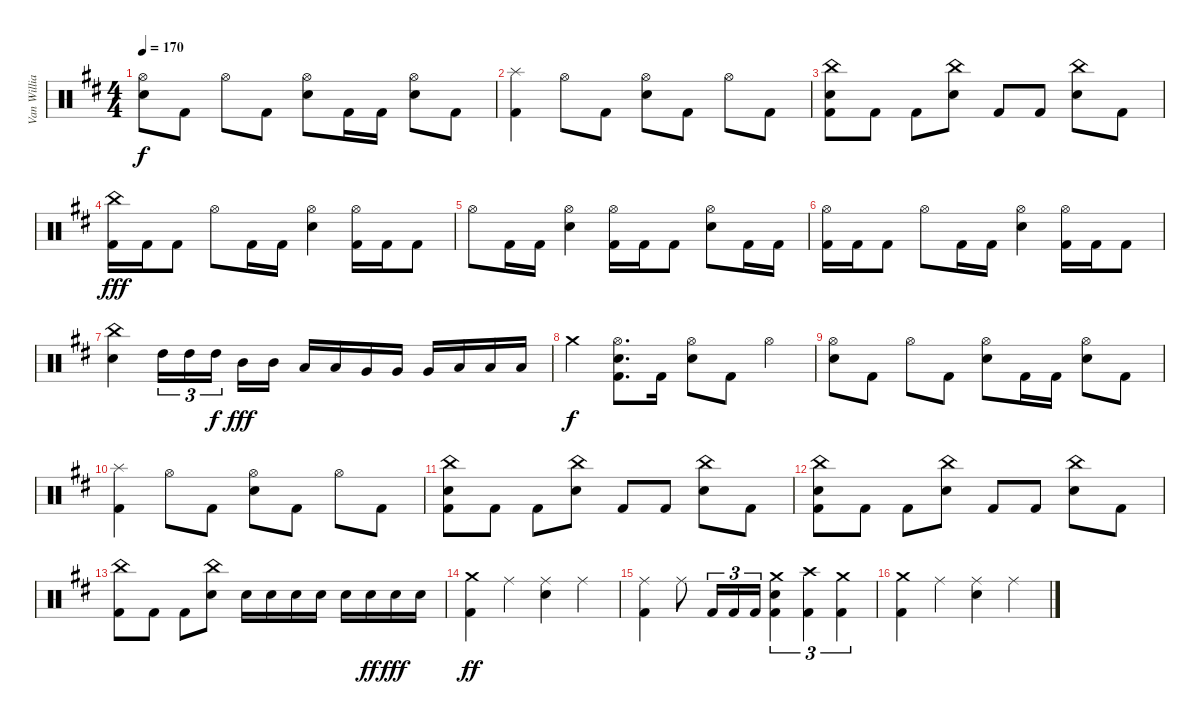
\track ("Van Williams" "Van Willia") {instrument percussion}
\staff {score}
\articulation defaults
\ts (4 4)
\tempo 170
\clef neutral
\ks d
("Hi-Hat (open)" "Electric Snare (hit)").8{dy f} "Kick (hit) 2".8 "Hi-Hat (open)".8 "Kick (hit) 2".8 ("Hi-Hat (open)" "Electric Snare (hit)").8 "Kick (hit) 2".16 "Kick (hit) 2".16 ("Hi-Hat (open)" "Electric Snare (hit)").8 "Kick (hit) 2".8 |
("Splash (hit)" "Kick (hit) 2").4 "Hi-Hat (open)".8 "Kick (hit) 2".8 ("Hi-Hat (open)" "Electric Snare (hit)").8 "Kick (hit) 2".8 "Hi-Hat (open)".8 "Kick (hit) 2".8 |
("China (hit)" "Electric Snare (hit)" "Kick (hit) 2").8 "Kick (hit) 2".8 "Kick (hit) 2".8 ("China (hit)" "Electric Snare (hit)").8 "Kick (hit) 2".8 "Kick (hit) 2".8 ("China (hit)" "Electric Snare (hit)").8 "Kick (hit) 2".8 |
("China (hit)" "Kick (hit) 2").16{dy fff} "Kick (hit) 2".16 "Kick (hit) 2".8 "Hi-Hat (open)".8 "Kick (hit) 2".16 "Kick (hit) 2".16 ("Hi-Hat (open)" "Electric Snare (hit)").4 ("Hi-Hat (open)" "Kick (hit) 2").16 "Kick (hit) 2".16 "Kick (hit) 2".8 |
"Hi-Hat (open)".8 "Kick (hit) 2".16 "Kick (hit) 2".16 ("Hi-Hat (open)" "Electric Snare (hit)").4 ("Hi-Hat (open)" "Kick (hit) 2").16 "Kick (hit) 2".16 "Kick (hit) 2".8 ("Hi-Hat (open)" "Electric Snare (hit)").8 "Kick (hit) 2".16 "Kick (hit) 2".16 |
("Hi-Hat (open)" "Kick (hit) 2").16 "Kick (hit) 2".16 "Kick (hit) 2".8 "Hi-Hat (open)".8 "Kick (hit) 2".16 "Kick (hit) 2".16 ("Hi-Hat (open)" "Electric Snare (hit)").4 ("Hi-Hat (open)" "Kick (hit) 2").16 "Kick (hit) 2".16 "Kick (hit) 2".8 |
("China (hit)" "Electric Snare (hit)").4 "High Tom (hit)".16{tu (3 2)} "High Tom (hit)".16{tu (3 2)} "High Tom (hit)".16{tu (3 2) dy f beam splitsecondary} "Mid Tom (hit)".16{dy fff} "Mid Tom (hit)".16 "Low Tom (hit)".16 "Low Tom (hit)".16 "Very Low Tom (hit)".16 "Very Low Tom (hit)".16 "Very Low Tom (hit)".16 "Low Floor Tom (hit)".16 "Low Floor Tom (hit)".16 "Low Floor Tom (hit)".16 |
"Crash medium (hit)".4{dy f} ("Hi-Hat (open)" "Electric Snare (hit)" "Kick (hit) 2").8{d} "Kick (hit) 2".16 ("Hi-Hat (open)" "Electric Snare (hit)").8 "Kick (hit) 2".8 "Hi-Hat (open)".4 |
("Hi-Hat (open)" "Electric Snare (hit)").8 "Kick (hit) 2".8 "Hi-Hat (open)".8 "Kick (hit) 2".8 ("Hi-Hat (open)" "Electric Snare (hit)").8 "Kick (hit) 2".16 "Kick (hit) 2".16 ("Hi-Hat (open)" "Electric Snare (hit)").8 "Kick (hit) 2".8 |
("Splash (hit)" "Kick (hit) 2").4 "Hi-Hat (open)".8 "Kick (hit) 2".8 ("Hi-Hat (open)" "Electric Snare (hit)").8 "Kick (hit) 2".8 "Hi-Hat (open)".8 "Kick (hit) 2".8 |
("China (hit)" "Electric Snare (hit)" "Kick (hit) 2").8 "Kick (hit) 2".8 "Kick (hit) 2".8 ("China (hit)" "Electric Snare (hit)").8 "Kick (hit) 2".8 "Kick (hit) 2".8 ("China (hit)" "Electric Snare (hit)").8 "Kick (hit) 2".8 |
("China (hit)" "Electric Snare (hit)" "Kick (hit) 2").8 "Kick (hit) 2".8 "Kick (hit) 2".8 ("China (hit)" "Electric Snare (hit)").8 "Kick (hit) 2".8 "Kick (hit) 2".8 ("China (hit)" "Electric Snare (hit)").8 "Kick (hit) 2".8 |
("China (hit)" "Kick (hit) 2").8 "Kick (hit) 2".8 "Kick (hit) 2".8 ("China (hit)" "Electric Snare (hit)").8 "Electric Snare (hit)".16 "Electric Snare (hit)".16 "Electric Snare (hit)".16 "Electric Snare (hit)".16 "Electric Snare (hit)".16 "Electric Snare (hit)".16{dy ff} "Electric Snare (hit)".16{dy fff} "Electric Snare (hit)".16 |
("Crash medium (hit)" "Kick (hit) 2").4{dy ff} "Ride (middle)".4 ("Ride (middle)" "Electric Snare (hit)").4 "Ride (middle)".4 |
("Ride (middle)" "Kick (hit) 2").4 "Ride (middle)".8 "Kick (hit) 2".16{tu (3 2)} "Kick (hit) 2".16{tu (3 2)} "Kick (hit) 2".16{tu (3 2)} ("Crash medium (hit)" "Electric Snare (hit)" "Kick (hit) 2").4{tu (3 2)} ("Crash high (hit)" "Kick (hit) 2").4{tu (3 2)} ("Crash medium (hit)" "Kick (hit) 2").4{tu (3 2)} |
("Crash medium (hit)" "Kick (hit) 2").4 "Ride (middle)".4 ("Ride (middle)" "Electric Snare (hit)").4 "Ride (middle)".4
